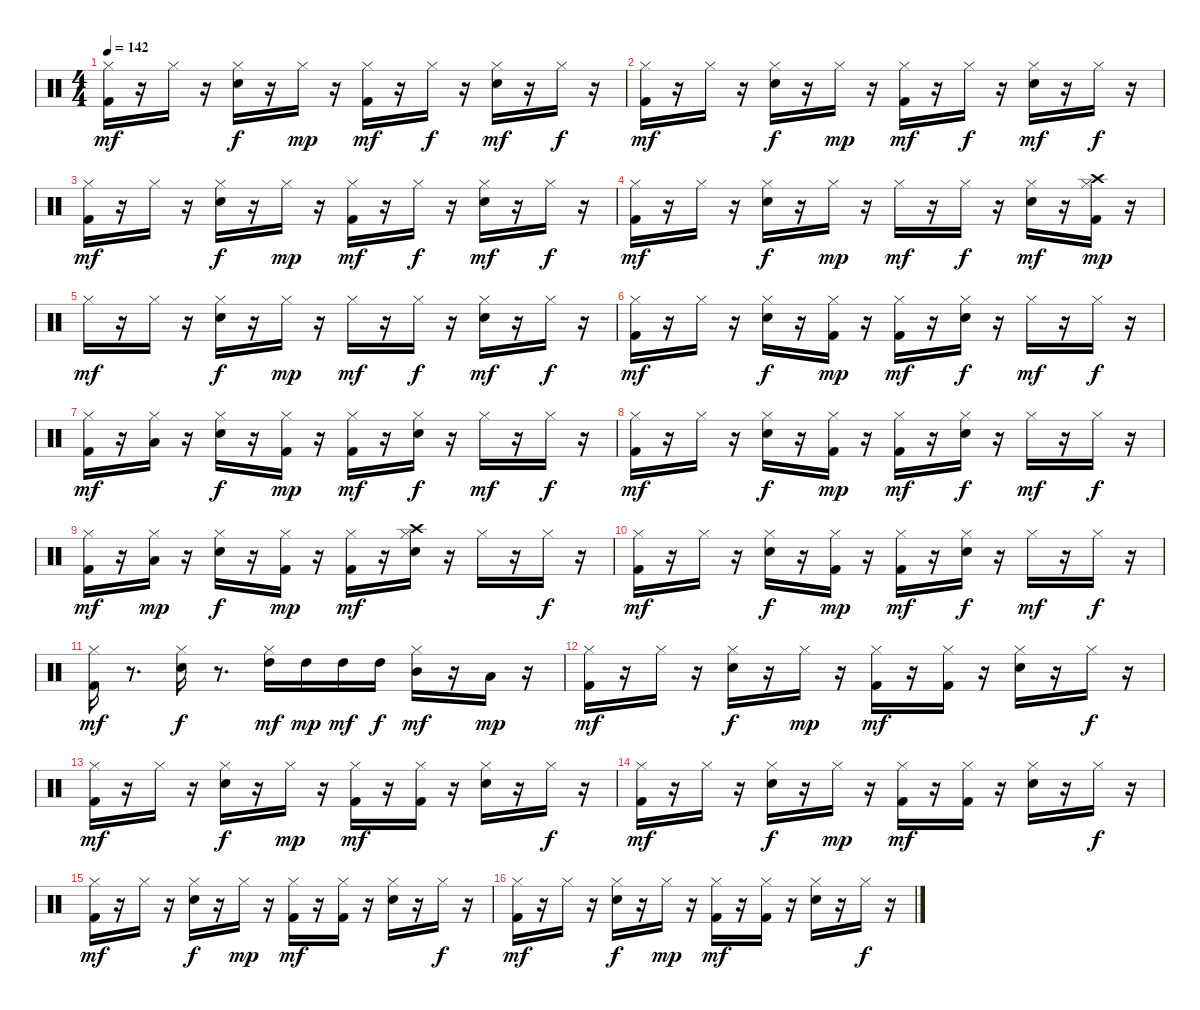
\track "" {instrument percussion}
\staff {score}
\articulation defaults
\ts (4 4)
\tempo 142
\clef neutral
\ks c
("Kick (hit) 2" "Hi-Hat (closed)").16{dy mf} r.16 "Hi-Hat (closed)".16 r.16 ("Electric Snare (hit)" "Hi-Hat (closed)").16{dy f} r.16 "Hi-Hat (closed)".16{dy mp} r.16 ("Kick (hit) 2" "Hi-Hat (closed)").16{dy mf} r.16 "Hi-Hat (closed)".16{dy f} r.16 ("Hi-Hat (closed)" "Electric Snare (hit)").16{dy mf} r.16 "Hi-Hat (closed)".16{dy f} r.16 |
("Hi-Hat (closed)" "Kick (hit) 2").16{dy mf} r.16 "Hi-Hat (closed)".16 r.16 ("Electric Snare (hit)" "Hi-Hat (closed)").16{dy f} r.16 "Hi-Hat (closed)".16{dy mp} r.16 ("Kick (hit) 2" "Hi-Hat (closed)").16{dy mf} r.16 "Hi-Hat (closed)".16{dy f} r.16 ("Electric Snare (hit)" "Hi-Hat (closed)").16{dy mf} r.16 "Hi-Hat (closed)".16{dy f} r.16 |
("Hi-Hat (closed)" "Kick (hit) 2").16{dy mf} r.16 "Hi-Hat (closed)".16 r.16 ("Electric Snare (hit)" "Hi-Hat (closed)").16{dy f} r.16 "Hi-Hat (closed)".16{dy mp} r.16 ("Kick (hit) 2" "Hi-Hat (closed)").16{dy mf} r.16 "Hi-Hat (closed)".16{dy f} r.16 ("Hi-Hat (closed)" "Electric Snare (hit)").16{dy mf} r.16 "Hi-Hat (closed)".16{dy f} r.16 |
("Kick (hit) 2" "Hi-Hat (closed)").16{dy mf} r.16 "Hi-Hat (closed)".16 r.16 ("Hi-Hat (closed)" "Electric Snare (hit)").16{dy f} r.16 "Hi-Hat (closed)".16{dy mp} r.16 "Hi-Hat (closed)".16{dy mf} r.16 "Hi-Hat (closed)".16{dy f} r.16 ("Hi-Hat (closed)" "Electric Snare (hit)").16{dy mf} r.16 ("Hi-Hat (closed)" "Crash high (hit)" "Kick (hit) 2").16{dy mp} r.16 |
"Hi-Hat (closed)".16{dy mf} r.16 "Hi-Hat (closed)".16 r.16 ("Hi-Hat (closed)" "Electric Snare (hit)").16{dy f} r.16 "Hi-Hat (closed)".16{dy mp} r.16 "Hi-Hat (closed)".16{dy mf} r.16 "Hi-Hat (closed)".16{dy f} r.16 ("Hi-Hat (closed)" "Electric Snare (hit)").16{dy mf} r.16 "Hi-Hat (closed)".16{dy f} r.16 |
("Kick (hit) 2" "Hi-Hat (closed)").16{dy mf} r.16 "Hi-Hat (closed)".16 r.16 ("Electric Snare (hit)" "Hi-Hat (closed)").16{dy f} r.16 ("Hi-Hat (closed)" "Kick (hit) 2").16{dy mp} r.16 ("Kick (hit) 2" "Hi-Hat (closed)").16{dy mf} r.16 ("Hi-Hat (closed)" "Electric Snare (hit)").16{dy f} r.16 "Hi-Hat (closed)".16{dy mf} r.16 "Hi-Hat (closed)".16{dy f} r.16 |
("Hi-Hat (closed)" "Kick (hit) 2").16{dy mf} r.16 ("Low Tom (hit)" "Hi-Hat (closed)").16 r.16 ("Hi-Hat (closed)" "Electric Snare (hit)").16{dy f} r.16 ("Hi-Hat (closed)" "Kick (hit) 2").16{dy mp} r.16 ("Kick (hit) 2" "Hi-Hat (closed)").16{dy mf} r.16 ("Hi-Hat (closed)" "Electric Snare (hit)").16{dy f} r.16 "Hi-Hat (closed)".16{dy mf} r.16 "Hi-Hat (closed)".16{dy f} r.16 |
("Hi-Hat (closed)" "Kick (hit) 2").16{dy mf} r.16 "Hi-Hat (closed)".16 r.16 ("Electric Snare (hit)" "Hi-Hat (closed)").16{dy f} r.16 ("Kick (hit) 2" "Hi-Hat (closed)").16{dy mp} r.16 ("Hi-Hat (closed)" "Kick (hit) 2").16{dy mf} r.16 ("Hi-Hat (closed)" "Electric Snare (hit)").16{dy f} r.16 "Hi-Hat (closed)".16{dy mf} r.16 "Hi-Hat (closed)".16{dy f} r.16 |
("Kick (hit) 2" "Hi-Hat (closed)").16{dy mf} r.16 ("Hi-Hat (closed)" "Low Tom (hit)").16{dy mp} r.16 ("Electric Snare (hit)" "Hi-Hat (closed)").16{dy f} r.16 ("Hi-Hat (closed)" "Kick (hit) 2").16{dy mp} r.16 ("Kick (hit) 2" "Hi-Hat (closed)").16{dy mf} r.16 ("Hi-Hat (closed)" "Crash high (hit)" "Electric Snare (hit)").16 r.16 "Hi-Hat (closed)".16 r.16 "Hi-Hat (closed)".16{dy f} r.16 |
("Kick (hit) 2" "Hi-Hat (closed)").16{dy mf} r.16 "Hi-Hat (closed)".16 r.16 ("Electric Snare (hit)" "Hi-Hat (closed)").16{dy f} r.16 ("Kick (hit) 2" "Hi-Hat (closed)").16{dy mp} r.16 ("Kick (hit) 2" "Hi-Hat (closed)").16{dy mf} r.16 ("Hi-Hat (closed)" "Electric Snare (hit)").16{dy f} r.16 "Hi-Hat (closed)".16{dy mf} r.16 "Hi-Hat (closed)".16{dy f} r.16 |
("Kick (hit) 2" "Hi-Hat (closed)").16{dy mf} r.8{d} ("Electric Snare (hit)" "Hi-Hat (closed)").16{dy f} r.8{d} ("High Tom (hit)" "Hi-Hat (closed)").16{dy mf} "High Tom (hit)".16{dy mp} "High Tom (hit)".16{dy mf} "High Tom (hit)".16{dy f} ("Hi-Hat (closed)" "Mid Tom (hit)").16{dy mf} r.16 "Low Tom (hit)".16{dy mp} r.16 |
("Kick (hit) 2" "Hi-Hat (closed)").16{dy mf} r.16 "Hi-Hat (closed)".16 r.16 ("Electric Snare (hit)" "Hi-Hat (closed)").16{dy f} r.16 "Hi-Hat (closed)".16{dy mp} r.16 ("Kick (hit) 2" "Hi-Hat (closed)").16{dy mf} r.16 ("Kick (hit) 2" "Hi-Hat (closed)").16 r.16 ("Hi-Hat (closed)" "Electric Snare (hit)").16 r.16 "Hi-Hat (closed)".16{dy f} r.16 |
("Kick (hit) 2" "Hi-Hat (closed)").16{dy mf} r.16 "Hi-Hat (closed)".16 r.16 ("Hi-Hat (closed)" "Electric Snare (hit)").16{dy f} r.16 "Hi-Hat (closed)".16{dy mp} r.16 ("Kick (hit) 2" "Hi-Hat (closed)").16{dy mf} r.16 ("Hi-Hat (closed)" "Kick (hit) 2").16 r.16 ("Electric Snare (hit)" "Hi-Hat (closed)").16 r.16 "Hi-Hat (closed)".16{dy f} r.16 |
("Hi-Hat (closed)" "Kick (hit) 2").16{dy mf} r.16 "Hi-Hat (closed)".16 r.16 ("Hi-Hat (closed)" "Electric Snare (hit)").16{dy f} r.16 "Hi-Hat (closed)".16{dy mp} r.16 ("Hi-Hat (closed)" "Kick (hit) 2").16{dy mf} r.16 ("Hi-Hat (closed)" "Kick (hit) 2").16 r.16 ("Hi-Hat (closed)" "Electric Snare (hit)").16 r.16 "Hi-Hat (closed)".16{dy f} r.16 |
("Kick (hit) 2" "Hi-Hat (closed)").16{dy mf} r.16 "Hi-Hat (closed)".16 r.16 ("Hi-Hat (closed)" "Electric Snare (hit)").16{dy f} r.16 "Hi-Hat (closed)".16{dy mp} r.16 ("Kick (hit) 2" "Hi-Hat (closed)").16{dy mf} r.16 ("Kick (hit) 2" "Hi-Hat (closed)").16 r.16 ("Hi-Hat (closed)" "Electric Snare (hit)").16 r.16 "Hi-Hat (closed)".16{dy f} r.16 |
("Hi-Hat (closed)" "Kick (hit) 2").16{dy mf} r.16 "Hi-Hat (closed)".16 r.16 ("Electric Snare (hit)" "Hi-Hat (closed)").16{dy f} r.16 "Hi-Hat (closed)".16{dy mp} r.16 ("Kick (hit) 2" "Hi-Hat (closed)").16{dy mf} r.16 ("Kick (hit) 2" "Hi-Hat (closed)").16 r.16 ("Hi-Hat (closed)" "Electric Snare (hit)").16 r.16 "Hi-Hat (closed)".16{dy f} r.16
